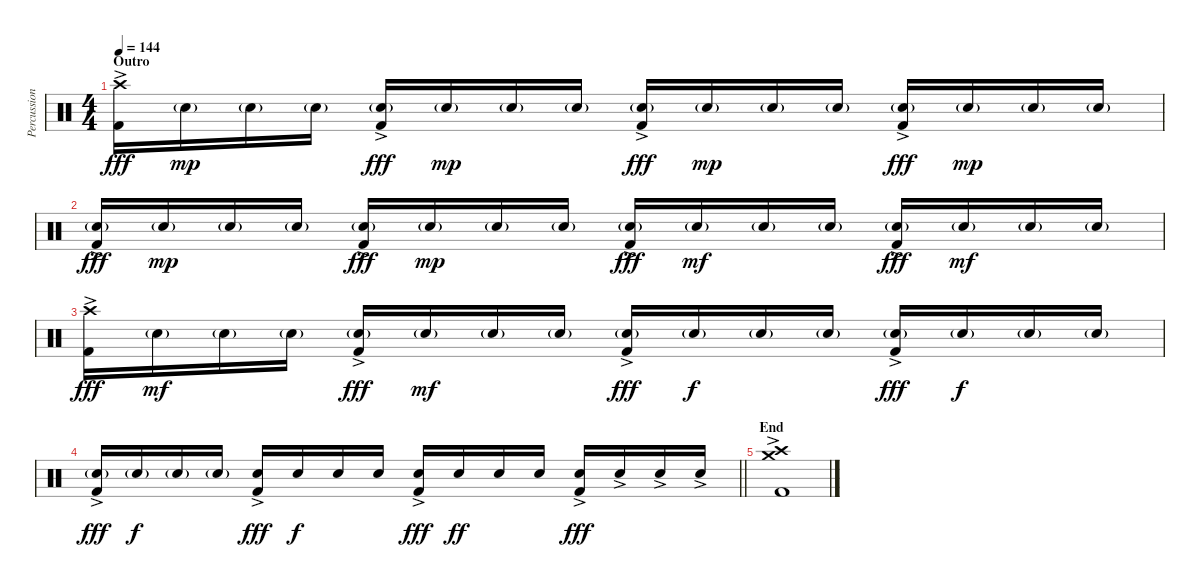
\track ("Percussion" "Percussion") {instrument percussion}
\staff {score}
\articulation defaults
\ts (4 4)
\section ("" "Outro")
\tempo 144
\clef neutral
\ks c
("Crash high (hit)" "Kick (hit) 2"{ac}).16{dy fff} "Electric Snare (hit)"{g}.16{dy mp} "Electric Snare (hit)"{g}.16 "Electric Snare (hit)"{g}.16 ("Electric Snare (hit)"{g} "Kick (hit) 2"{ac}).16{dy fff} "Electric Snare (hit)"{g}.16{dy mp} "Electric Snare (hit)"{g}.16 "Electric Snare (hit)"{g}.16 ("Electric Snare (hit)"{g} "Kick (hit) 2"{ac}).16{dy fff} "Electric Snare (hit)"{g}.16{dy mp} "Electric Snare (hit)"{g}.16 "Electric Snare (hit)"{g}.16 ("Electric Snare (hit)"{g} "Kick (hit) 2"{ac}).16{dy fff} "Electric Snare (hit)"{g}.16{dy mp} "Electric Snare (hit)"{g}.16 "Electric Snare (hit)"{g}.16 |
("Electric Snare (hit)"{g} "Kick (hit) 2"{ac}).16{dy fff} "Electric Snare (hit)"{g}.16{dy mp} "Electric Snare (hit)"{g}.16 "Electric Snare (hit)"{g}.16 ("Electric Snare (hit)"{g} "Kick (hit) 2"{ac}).16{dy fff} "Electric Snare (hit)"{g}.16{dy mp} "Electric Snare (hit)"{g}.16 "Electric Snare (hit)"{g}.16 ("Electric Snare (hit)"{g} "Kick (hit) 2"{ac}).16{dy fff} "Electric Snare (hit)"{g}.16{dy mf} "Electric Snare (hit)"{g}.16 "Electric Snare (hit)"{g}.16 ("Electric Snare (hit)"{g} "Kick (hit) 2"{ac}).16{dy fff} "Electric Snare (hit)"{g}.16{dy mf} "Electric Snare (hit)"{g}.16 "Electric Snare (hit)"{g}.16 |
("Crash high (hit)" "Kick (hit) 2"{ac}).16{dy fff} "Electric Snare (hit)"{g}.16{dy mf} "Electric Snare (hit)"{g}.16 "Electric Snare (hit)"{g}.16 ("Electric Snare (hit)"{g} "Kick (hit) 2"{ac}).16{dy fff} "Electric Snare (hit)"{g}.16{dy mf} "Electric Snare (hit)"{g}.16 "Electric Snare (hit)"{g}.16 ("Electric Snare (hit)"{g} "Kick (hit) 2"{ac}).16{dy fff} "Electric Snare (hit)"{g}.16{dy f} "Electric Snare (hit)"{g}.16 "Electric Snare (hit)"{g}.16 ("Electric Snare (hit)"{g} "Kick (hit) 2"{ac}).16{dy fff} "Electric Snare (hit)"{g}.16{dy f} "Electric Snare (hit)"{g}.16 "Electric Snare (hit)"{g}.16 |
\barLineRight lightlight
("Electric Snare (hit)"{g} "Kick (hit) 2"{ac}).16{dy fff} "Electric Snare (hit)"{g}.16{dy f} "Electric Snare (hit)"{g}.16 "Electric Snare (hit)"{g}.16 ("Electric Snare (hit)" "Kick (hit) 2"{ac}).16{dy fff} "Electric Snare (hit)".16{dy f} "Electric Snare (hit)".16 "Electric Snare (hit)".16 ("Electric Snare (hit)" "Kick (hit) 2"{ac}).16{dy fff} "Electric Snare (hit)".16{dy ff} "Electric Snare (hit)".16 "Electric Snare (hit)".16 ("Electric Snare (hit)"{ac} "Kick (hit) 2"{ac}).16{dy fff} "Electric Snare (hit)"{ac}.16 "Electric Snare (hit)"{ac}.16 "Electric Snare (hit)"{ac}.16 |
\section ("" "End")
("Crash high (hit)" "Crash medium (hit)" "Kick (hit) 2"{ac}).1
